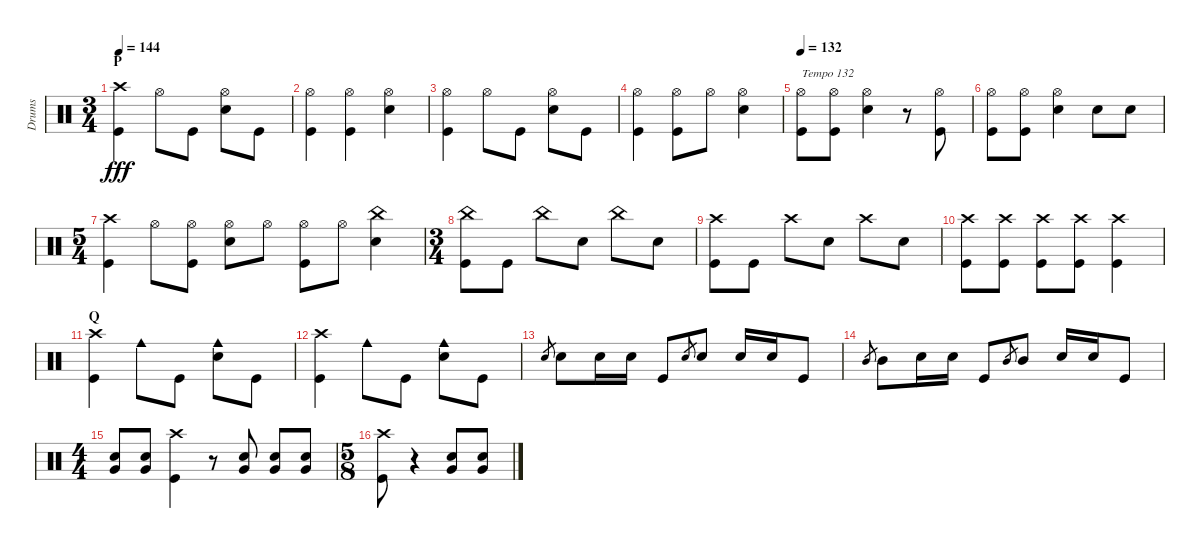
\track ("Drums" "Drums") {instrument percussion}
\staff {score}
\articulation defaults
\ts (3 4)
\section ("" "P")
\tempo 144
\clef neutral
\ks c
("Crash high (hit)" "Kick (hit)").4{dy fff} "Hi-Hat (open)".8 "Kick (hit)".8 ("Hi-Hat (open)" "Snare (hit) 2").8 "Kick (hit)".8 |
("Hi-Hat (open)" "Kick (hit)").4 ("Hi-Hat (open)" "Kick (hit)").4 ("Hi-Hat (open)" "Snare (hit) 2").4 |
("Hi-Hat (open)" "Kick (hit)").4 "Hi-Hat (open)".8 "Kick (hit)".8 ("Hi-Hat (open)" "Snare (hit) 2").8 "Kick (hit)".8 |
("Hi-Hat (open)" "Kick (hit)").4 ("Hi-Hat (open)" "Kick (hit)").8 "Hi-Hat (open)".8 ("Hi-Hat (open)" "Snare (hit) 2").4 |
\tempo 132
("Hi-Hat (open)" "Kick (hit)").8{txt "Tempo 132"} ("Hi-Hat (open)" "Kick (hit)").8 ("Hi-Hat (open)" "Snare (hit) 2").4 r.8 ("Hi-Hat (open)" "Kick (hit)").8 |
("Hi-Hat (open)" "Kick (hit)").8 ("Hi-Hat (open)" "Kick (hit)").8 ("Hi-Hat (open)" "Snare (hit) 2").4 "Snare (hit) 2".8 "Snare (hit) 2".8 |
\ts (5 4)
("Crash high (hit)" "Kick (hit)").4 "Hi-Hat (open)".8 ("Hi-Hat (open)" "Kick (hit)").8 ("Hi-Hat (open)" "Snare (hit) 2").8 "Hi-Hat (open)".8 ("Hi-Hat (open)" "Kick (hit)").8 "Hi-Hat (open)".8 ("China (hit)" "Snare (hit) 2").4 |
\ts (3 4)
("China (hit)" "Kick (hit)").8 "Kick (hit)".8 "China (hit)".8 "Snare (hit) 2".8 "China (hit)".8 "Snare (hit) 2".8 |
("Crash high (hit)" "Kick (hit)").8 "Kick (hit)".8 "Crash high (hit)".8 "Snare (hit) 2".8 "Crash high (hit)".8 "Snare (hit) 2".8 |
("Crash high (hit)" "Kick (hit)").8 ("Crash high (hit)" "Kick (hit)").8 ("Crash high (hit)" "Kick (hit)").8 ("Crash high (hit)" "Kick (hit)").8 ("Crash high (hit)" "Kick (hit)").4 |
\section ("" "Q")
("Crash high (hit)" "Kick (hit)").4 "Cowbell medium (hit)".8 "Kick (hit)".8 ("Cowbell medium (hit)" "Snare (hit) 2").8 "Kick (hit)".8 |
("Crash high (hit)" "Kick (hit)").4 "Cowbell medium (hit)".8 "Kick (hit)".8 ("Cowbell medium (hit)" "Snare (hit) 2").8 "Kick (hit)".8 |
"Snare (hit) 2".8{gr} "Snare (hit) 2".8 "Snare (hit) 2".16 "Snare (hit) 2".16 "Kick (hit)".8 "Snare (hit) 2".8{gr} "Snare (hit) 2".8 "Snare (hit) 2".16 "Snare (hit) 2".16 "Kick (hit)".8 |
"Mid Tom (hit)".8{gr} "Mid Tom (hit)".8 "Snare (hit) 2".16 "Snare (hit) 2".16 "Kick (hit)".8 "Mid Tom (hit)".8{gr} "Mid Tom (hit)".8 "Snare (hit) 2".16 "Snare (hit) 2".16 "Kick (hit)".8 |
\ts (4 4)
("Very Low Tom (hit)" "Snare (hit) 2").8 ("Very Low Tom (hit)" "Snare (hit) 2").8 ("Crash high (hit)" "Kick (hit)").4 r.8 ("Very Low Tom (hit)" "Snare (hit) 2").8 ("Very Low Tom (hit)" "Snare (hit) 2").8 ("Very Low Tom (hit)" "Snare (hit) 2").8 |
\ts (5 8)
("Crash high (hit)" "Kick (hit)").8 r.4 ("Very Low Tom (hit)" "Snare (hit) 2").8 ("Very Low Tom (hit)" "Snare (hit) 2").8
